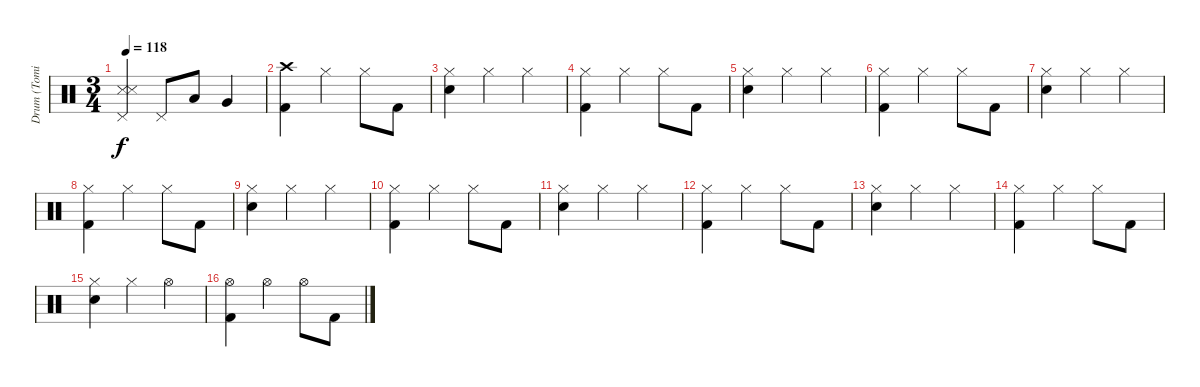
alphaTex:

\track ("Drum (Tomi)" "Drum (Tomi") {instrument percussion}
\staff {score}
\articulation defaults
\ts (3 4)
\tempo 118
\clef neutral
\ks c
("Snare (side stick) 3" "Pedal Hi-Hat (hit)" "Snare (side stick) 3").4{dy f} "Pedal Hi-Hat (hit)".8 "Low Tom (hit)".8 "Very Low Tom (hit)".4 |
("Crash high (hit)" "Kick (hit) 2").4 "Hi-Hat (closed)".4 "Hi-Hat (closed)".8 "Kick (hit) 2".8 |
("Hi-Hat (closed)" "Electric Snare (hit)").4 "Hi-Hat (closed)".4 "Hi-Hat (closed)".4 |
("Hi-Hat (closed)" "Kick (hit) 2").4 "Hi-Hat (closed)".4 "Hi-Hat (closed)".8 "Kick (hit) 2".8 |
("Hi-Hat (closed)" "Electric Snare (hit)").4 "Hi-Hat (closed)".4 "Hi-Hat (closed)".4 |
("Hi-Hat (closed)" "Kick (hit) 2").4 "Hi-Hat (closed)".4 "Hi-Hat (closed)".8 "Kick (hit) 2".8 |
("Hi-Hat (closed)" "Electric Snare (hit)").4 "Hi-Hat (closed)".4 "Hi-Hat (closed)".4 |
("Hi-Hat (closed)" "Kick (hit) 2").4 "Hi-Hat (closed)".4 "Hi-Hat (closed)".8 "Kick (hit) 2".8 |
("Hi-Hat (closed)" "Electric Snare (hit)").4 "Hi-Hat (closed)".4 "Hi-Hat (closed)".4 |
("Hi-Hat (closed)" "Kick (hit) 2").4 "Hi-Hat (closed)".4 "Hi-Hat (closed)".8 "Kick (hit) 2".8 |
("Hi-Hat (closed)" "Electric Snare (hit)").4 "Hi-Hat (closed)".4 "Hi-Hat (closed)".4 |
("Hi-Hat (closed)" "Kick (hit) 2").4 "Hi-Hat (closed)".4 "Hi-Hat (closed)".8 "Kick (hit) 2".8 |
("Hi-Hat (closed)" "Electric Snare (hit)").4 "Hi-Hat (closed)".4 "Hi-Hat (closed)".4 |
("Hi-Hat (closed)" "Kick (hit) 2").4 "Hi-Hat (closed)".4 "Hi-Hat (closed)".8 "Kick (hit) 2".8 |
("Hi-Hat (closed)" "Electric Snare (hit)").4 "Hi-Hat (closed)".4 "Hi-Hat (open)".4 |
("Hi-Hat (open)" "Kick (hit) 2").4 "Hi-Hat (open)".4 "Hi-Hat (open)".8 "Kick (hit) 2".8
